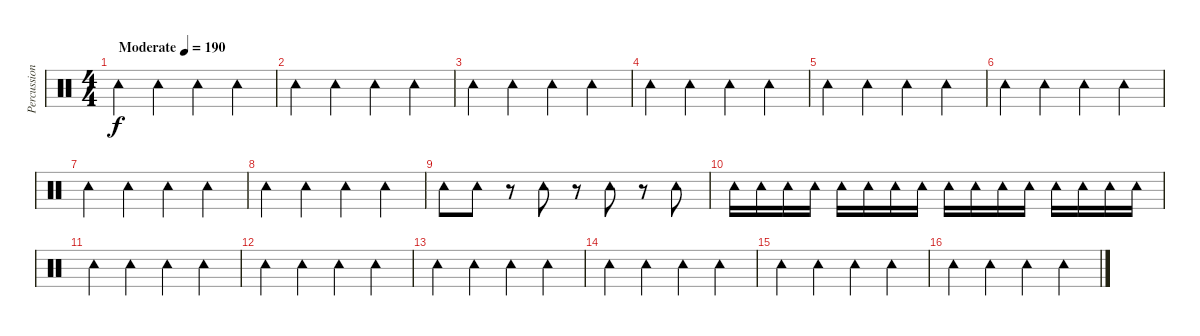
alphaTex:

\track ("Percussion" "Percussion") {instrument percussion}
\staff {score}
\articulation defaults
\ts (4 4)
\tempo (190 "Moderate")
\clef neutral
\ks c "Tambourine (hit)".4{dy f} "Tambourine (hit)".4 "Tambourine (hit)".4 "Tambourine (hit)".4
|
"Tambourine (hit)".4 "Tambourine (hit)".4 "Tambourine (hit)".4 "Tambourine (hit)".4 |
"Tambourine (hit)".4 "Tambourine (hit)".4 "Tambourine (hit)".4 "Tambourine (hit)".4 |
"Tambourine (hit)".4 "Tambourine (hit)".4 "Tambourine (hit)".4 "Tambourine (hit)".4 |
"Tambourine (hit)".4 "Tambourine (hit)".4 "Tambourine (hit)".4 "Tambourine (hit)".4 |
"Tambourine (hit)".4 "Tambourine (hit)".4 "Tambourine (hit)".4 "Tambourine (hit)".4 |
"Tambourine (hit)".4 "Tambourine (hit)".4 "Tambourine (hit)".4 "Tambourine (hit)".4 |
"Tambourine (hit)".4 "Tambourine (hit)".4 "Tambourine (hit)".4 "Tambourine (hit)".4 |
"Tambourine (hit)".8 "Tambourine (hit)".8 r.8 "Tambourine (hit)".8 r.8 "Tambourine (hit)".8 r.8 "Tambourine (hit)".8 |
"Tambourine (hit)".16 "Tambourine (hit)".16 "Tambourine (hit)".16 "Tambourine (hit)".16 "Tambourine (hit)".16 "Tambourine (hit)".16 "Tambourine (hit)".16 "Tambourine (hit)".16 "Tambourine (hit)".16 "Tambourine (hit)".16 "Tambourine (hit)".16 "Tambourine (hit)".16 "Tambourine (hit)".16 "Tambourine (hit)".16 "Tambourine (hit)".16 "Tambourine (hit)".16 |
"Tambourine (hit)".4 "Tambourine (hit)".4 "Tambourine (hit)".4 "Tambourine (hit)".4 |
"Tambourine (hit)".4 "Tambourine (hit)".4 "Tambourine (hit)".4 "Tambourine (hit)".4 |
"Tambourine (hit)".4 "Tambourine (hit)".4 "Tambourine (hit)".4 "Tambourine (hit)".4 |
"Tambourine (hit)".4 "Tambourine (hit)".4 "Tambourine (hit)".4 "Tambourine (hit)".4 |
"Tambourine (hit)".4 "Tambourine (hit)".4 "Tambourine (hit)".4 "Tambourine (hit)".4 |
"Tambourine (hit)".4 "Tambourine (hit)".4 "Tambourine (hit)".4 "Tambourine (hit)".4
